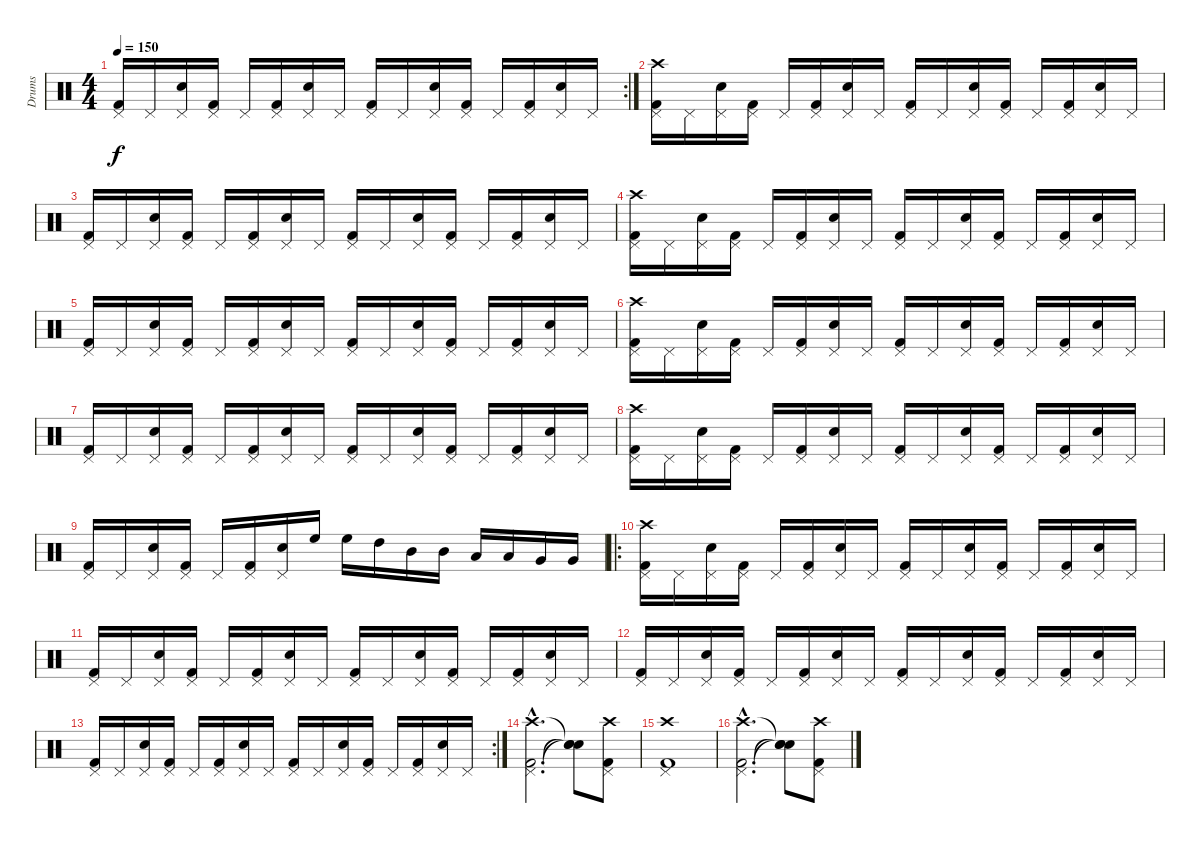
\track ("Drums" "Drums") {instrument percussion}
\staff {score}
\articulation defaults
\rc 2
\ts (4 4)
\tempo 150
\clef neutral
\ks c
("Kick (hit) 2" "Pedal Hi-Hat (hit)").16{dy f} "Pedal Hi-Hat (hit)".16 ("Snare (hit) 2" "Pedal Hi-Hat (hit)").16 ("Kick (hit) 2" "Pedal Hi-Hat (hit)").16 "Pedal Hi-Hat (hit)".16 ("Kick (hit) 2" "Pedal Hi-Hat (hit)").16 ("Snare (hit) 2" "Pedal Hi-Hat (hit)").16 "Pedal Hi-Hat (hit)".16 ("Kick (hit) 2" "Pedal Hi-Hat (hit)").16 "Pedal Hi-Hat (hit)".16 ("Snare (hit) 2" "Pedal Hi-Hat (hit)").16 ("Kick (hit) 2" "Pedal Hi-Hat (hit)").16 "Pedal Hi-Hat (hit)".16 ("Kick (hit) 2" "Pedal Hi-Hat (hit)").16 ("Snare (hit) 2" "Pedal Hi-Hat (hit)").16 "Pedal Hi-Hat (hit)".16 |
("Kick (hit) 2" "Pedal Hi-Hat (hit)" "Crash high (hit)").16 "Pedal Hi-Hat (hit)".16 ("Snare (hit) 2" "Pedal Hi-Hat (hit)").16 ("Kick (hit) 2" "Pedal Hi-Hat (hit)").16 "Pedal Hi-Hat (hit)".16 ("Kick (hit) 2" "Pedal Hi-Hat (hit)").16 ("Snare (hit) 2" "Pedal Hi-Hat (hit)").16 "Pedal Hi-Hat (hit)".16 ("Kick (hit) 2" "Pedal Hi-Hat (hit)").16 "Pedal Hi-Hat (hit)".16 ("Snare (hit) 2" "Pedal Hi-Hat (hit)").16 ("Kick (hit) 2" "Pedal Hi-Hat (hit)").16 "Pedal Hi-Hat (hit)".16 ("Kick (hit) 2" "Pedal Hi-Hat (hit)").16 ("Snare (hit) 2" "Pedal Hi-Hat (hit)").16 "Pedal Hi-Hat (hit)".16 |
("Kick (hit) 2" "Pedal Hi-Hat (hit)").16 "Pedal Hi-Hat (hit)".16 ("Snare (hit) 2" "Pedal Hi-Hat (hit)").16 ("Kick (hit) 2" "Pedal Hi-Hat (hit)").16 "Pedal Hi-Hat (hit)".16 ("Kick (hit) 2" "Pedal Hi-Hat (hit)").16 ("Snare (hit) 2" "Pedal Hi-Hat (hit)").16 "Pedal Hi-Hat (hit)".16 ("Kick (hit) 2" "Pedal Hi-Hat (hit)").16 "Pedal Hi-Hat (hit)".16 ("Snare (hit) 2" "Pedal Hi-Hat (hit)").16 ("Kick (hit) 2" "Pedal Hi-Hat (hit)").16 "Pedal Hi-Hat (hit)".16 ("Kick (hit) 2" "Pedal Hi-Hat (hit)").16 ("Snare (hit) 2" "Pedal Hi-Hat (hit)").16 "Pedal Hi-Hat (hit)".16 |
("Kick (hit) 2" "Pedal Hi-Hat (hit)" "Crash high (hit)").16 "Pedal Hi-Hat (hit)".16 ("Snare (hit) 2" "Pedal Hi-Hat (hit)").16 ("Kick (hit) 2" "Pedal Hi-Hat (hit)").16 "Pedal Hi-Hat (hit)".16 ("Kick (hit) 2" "Pedal Hi-Hat (hit)").16 ("Snare (hit) 2" "Pedal Hi-Hat (hit)").16 "Pedal Hi-Hat (hit)".16 ("Kick (hit) 2" "Pedal Hi-Hat (hit)").16 "Pedal Hi-Hat (hit)".16 ("Snare (hit) 2" "Pedal Hi-Hat (hit)").16 ("Kick (hit) 2" "Pedal Hi-Hat (hit)").16 "Pedal Hi-Hat (hit)".16 ("Kick (hit) 2" "Pedal Hi-Hat (hit)").16 ("Snare (hit) 2" "Pedal Hi-Hat (hit)").16 "Pedal Hi-Hat (hit)".16 |
("Kick (hit) 2" "Pedal Hi-Hat (hit)").16 "Pedal Hi-Hat (hit)".16 ("Snare (hit) 2" "Pedal Hi-Hat (hit)").16 ("Kick (hit) 2" "Pedal Hi-Hat (hit)").16 "Pedal Hi-Hat (hit)".16 ("Kick (hit) 2" "Pedal Hi-Hat (hit)").16 ("Snare (hit) 2" "Pedal Hi-Hat (hit)").16 "Pedal Hi-Hat (hit)".16 ("Kick (hit) 2" "Pedal Hi-Hat (hit)").16 "Pedal Hi-Hat (hit)".16 ("Snare (hit) 2" "Pedal Hi-Hat (hit)").16 ("Kick (hit) 2" "Pedal Hi-Hat (hit)").16 "Pedal Hi-Hat (hit)".16 ("Kick (hit) 2" "Pedal Hi-Hat (hit)").16 ("Snare (hit) 2" "Pedal Hi-Hat (hit)").16 "Pedal Hi-Hat (hit)".16 |
("Kick (hit) 2" "Pedal Hi-Hat (hit)" "Crash high (hit)").16 "Pedal Hi-Hat (hit)".16 ("Snare (hit) 2" "Pedal Hi-Hat (hit)").16 ("Kick (hit) 2" "Pedal Hi-Hat (hit)").16 "Pedal Hi-Hat (hit)".16 ("Kick (hit) 2" "Pedal Hi-Hat (hit)").16 ("Snare (hit) 2" "Pedal Hi-Hat (hit)").16 "Pedal Hi-Hat (hit)".16 ("Kick (hit) 2" "Pedal Hi-Hat (hit)").16 "Pedal Hi-Hat (hit)".16 ("Snare (hit) 2" "Pedal Hi-Hat (hit)").16 ("Kick (hit) 2" "Pedal Hi-Hat (hit)").16 "Pedal Hi-Hat (hit)".16 ("Kick (hit) 2" "Pedal Hi-Hat (hit)").16 ("Snare (hit) 2" "Pedal Hi-Hat (hit)").16 "Pedal Hi-Hat (hit)".16 |
("Kick (hit) 2" "Pedal Hi-Hat (hit)").16 "Pedal Hi-Hat (hit)".16 ("Snare (hit) 2" "Pedal Hi-Hat (hit)").16 ("Kick (hit) 2" "Pedal Hi-Hat (hit)").16 "Pedal Hi-Hat (hit)".16 ("Kick (hit) 2" "Pedal Hi-Hat (hit)").16 ("Snare (hit) 2" "Pedal Hi-Hat (hit)").16 "Pedal Hi-Hat (hit)".16 ("Kick (hit) 2" "Pedal Hi-Hat (hit)").16 "Pedal Hi-Hat (hit)".16 ("Snare (hit) 2" "Pedal Hi-Hat (hit)").16 ("Kick (hit) 2" "Pedal Hi-Hat (hit)").16 "Pedal Hi-Hat (hit)".16 ("Kick (hit) 2" "Pedal Hi-Hat (hit)").16 ("Snare (hit) 2" "Pedal Hi-Hat (hit)").16 "Pedal Hi-Hat (hit)".16 |
("Kick (hit) 2" "Pedal Hi-Hat (hit)" "Crash high (hit)").16 "Pedal Hi-Hat (hit)".16 ("Snare (hit) 2" "Pedal Hi-Hat (hit)").16 ("Kick (hit) 2" "Pedal Hi-Hat (hit)").16 "Pedal Hi-Hat (hit)".16 ("Kick (hit) 2" "Pedal Hi-Hat (hit)").16 ("Snare (hit) 2" "Pedal Hi-Hat (hit)").16 "Pedal Hi-Hat (hit)".16 ("Kick (hit) 2" "Pedal Hi-Hat (hit)").16 "Pedal Hi-Hat (hit)".16 ("Snare (hit) 2" "Pedal Hi-Hat (hit)").16 ("Kick (hit) 2" "Pedal Hi-Hat (hit)").16 "Pedal Hi-Hat (hit)".16 ("Kick (hit) 2" "Pedal Hi-Hat (hit)").16 ("Snare (hit) 2" "Pedal Hi-Hat (hit)").16 "Pedal Hi-Hat (hit)".16 |
("Kick (hit) 2" "Pedal Hi-Hat (hit)").16 "Pedal Hi-Hat (hit)".16 ("Snare (hit) 2" "Pedal Hi-Hat (hit)").16 ("Kick (hit) 2" "Pedal Hi-Hat (hit)").16 "Pedal Hi-Hat (hit)".16 ("Kick (hit) 2" "Pedal Hi-Hat (hit)").16 ("Snare (hit) 2" "Pedal Hi-Hat (hit)").16 "High Floor Tom (hit)".16 "High Floor Tom (hit)".16 "High Tom (hit)".16 "Mid Tom (hit)".16 "Mid Tom (hit)".16 "Low Tom (hit)".16 "Low Tom (hit)".16 "Very Low Tom (hit)".16 "Very Low Tom (hit)".16 |
\ro
("Kick (hit) 2" "Pedal Hi-Hat (hit)" "Crash high (hit)").16 "Pedal Hi-Hat (hit)".16 ("Snare (hit) 2" "Pedal Hi-Hat (hit)").16 ("Kick (hit) 2" "Pedal Hi-Hat (hit)").16 "Pedal Hi-Hat (hit)".16 ("Kick (hit) 2" "Pedal Hi-Hat (hit)").16 ("Snare (hit) 2" "Pedal Hi-Hat (hit)").16 "Pedal Hi-Hat (hit)".16 ("Kick (hit) 2" "Pedal Hi-Hat (hit)").16 "Pedal Hi-Hat (hit)".16 ("Snare (hit) 2" "Pedal Hi-Hat (hit)").16 ("Kick (hit) 2" "Pedal Hi-Hat (hit)").16 "Pedal Hi-Hat (hit)".16 ("Kick (hit) 2" "Pedal Hi-Hat (hit)").16 ("Snare (hit) 2" "Pedal Hi-Hat (hit)").16 "Pedal Hi-Hat (hit)".16 |
("Kick (hit) 2" "Pedal Hi-Hat (hit)").16 "Pedal Hi-Hat (hit)".16 ("Snare (hit) 2" "Pedal Hi-Hat (hit)").16 ("Kick (hit) 2" "Pedal Hi-Hat (hit)").16 "Pedal Hi-Hat (hit)".16 ("Kick (hit) 2" "Pedal Hi-Hat (hit)").16 ("Snare (hit) 2" "Pedal Hi-Hat (hit)").16 "Pedal Hi-Hat (hit)".16 ("Kick (hit) 2" "Pedal Hi-Hat (hit)").16 "Pedal Hi-Hat (hit)".16 ("Snare (hit) 2" "Pedal Hi-Hat (hit)").16 ("Kick (hit) 2" "Pedal Hi-Hat (hit)").16 "Pedal Hi-Hat (hit)".16 ("Kick (hit) 2" "Pedal Hi-Hat (hit)").16 ("Snare (hit) 2" "Pedal Hi-Hat (hit)").16 "Pedal Hi-Hat (hit)".16 |
("Kick (hit) 2" "Pedal Hi-Hat (hit)").16 "Pedal Hi-Hat (hit)".16 ("Snare (hit) 2" "Pedal Hi-Hat (hit)").16 ("Kick (hit) 2" "Pedal Hi-Hat (hit)").16 "Pedal Hi-Hat (hit)".16 ("Kick (hit) 2" "Pedal Hi-Hat (hit)").16 ("Snare (hit) 2" "Pedal Hi-Hat (hit)").16 "Pedal Hi-Hat (hit)".16 ("Kick (hit) 2" "Pedal Hi-Hat (hit)").16 "Pedal Hi-Hat (hit)".16 ("Snare (hit) 2" "Pedal Hi-Hat (hit)").16 ("Kick (hit) 2" "Pedal Hi-Hat (hit)").16 "Pedal Hi-Hat (hit)".16 ("Kick (hit) 2" "Pedal Hi-Hat (hit)").16 ("Snare (hit) 2" "Pedal Hi-Hat (hit)").16 "Pedal Hi-Hat (hit)".16 |
\rc 2
("Kick (hit) 2" "Pedal Hi-Hat (hit)").16 "Pedal Hi-Hat (hit)".16 ("Snare (hit) 2" "Pedal Hi-Hat (hit)").16 ("Kick (hit) 2" "Pedal Hi-Hat (hit)").16 "Pedal Hi-Hat (hit)".16 ("Kick (hit) 2" "Pedal Hi-Hat (hit)").16 ("Snare (hit) 2" "Pedal Hi-Hat (hit)").16 "Pedal Hi-Hat (hit)".16 ("Kick (hit) 2" "Pedal Hi-Hat (hit)").16 "Pedal Hi-Hat (hit)".16 ("Snare (hit) 2" "Pedal Hi-Hat (hit)").16 ("Kick (hit) 2" "Pedal Hi-Hat (hit)").16 "Pedal Hi-Hat (hit)".16 ("Kick (hit) 2" "Pedal Hi-Hat (hit)").16 ("Snare (hit) 2" "Pedal Hi-Hat (hit)").16 "Pedal Hi-Hat (hit)".16 |
("Kick (hit) 2"{hac} "Pedal Hi-Hat (hit)"{hac} "Crash high (hit)"{hac}).2{d} ("Snare (hit)"{t} "Snare (hit)"{t} "Snare (hit)"{t}).8 ("Kick (hit) 2" "Pedal Hi-Hat (hit)" "Crash high (hit)").8 |
("Kick (hit) 2" "Pedal Hi-Hat (hit)" "Crash high (hit)").1 |
("Kick (hit) 2"{hac} "Pedal Hi-Hat (hit)"{hac} "Crash high (hit)"{hac}).2{d} ("Snare (hit)"{t} "Snare (hit)"{t} "Snare (hit)"{t}).8 ("Kick (hit) 2" "Pedal Hi-Hat (hit)" "Crash high (hit)").8
